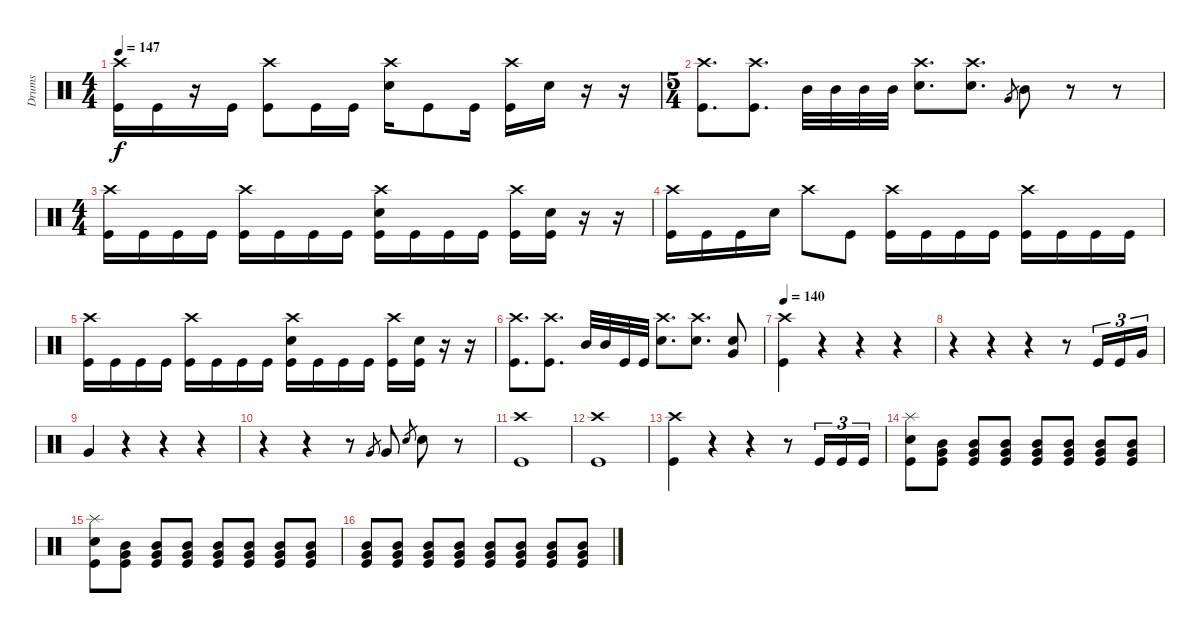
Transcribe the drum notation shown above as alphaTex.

\track ("Drums" "Drums") {instrument percussion}
\staff {score}
\articulation defaults
\ts (4 4)
\tempo 147
\clef neutral
\ks c
("Crash high (hit)" "Kick (hit)").16{dy f} "Kick (hit)".16 r.16 "Kick (hit)".16 ("Crash high (hit)" "Kick (hit)").8 "Kick (hit)".16 "Kick (hit)".16 ("Crash high (hit)" "Electric Snare (hit)").16 "Kick (hit)".8 "Kick (hit)".16 ("Crash high (hit)" "Kick (hit)").16 "Electric Snare (hit)".16 r.16 r.16 |
\ts (5 4)
("Crash high (hit)" "Kick (hit)").8{d} ("Kick (hit)" "Crash high (hit)").8{d} "Mid Tom (hit)".32 "Mid Tom (hit)".32 "Mid Tom (hit)".32 "Mid Tom (hit)".32 ("Electric Snare (hit)" "Crash high (hit)").8{d} ("Electric Snare (hit)" "Crash high (hit)").8{d} "Very Low Tom (hit)".8{gr} "Mid Tom (hit)".8 r.8 r.8 |
\ts (4 4)
("Crash high (hit)" "Kick (hit)").16 "Kick (hit)".16 "Kick (hit)".16 "Kick (hit)".16 ("Crash high (hit)" "Kick (hit)").16 "Kick (hit)".16 "Kick (hit)".16 "Kick (hit)".16 ("Crash high (hit)" "Electric Snare (hit)" "Kick (hit)").16 "Kick (hit)".16 "Kick (hit)".16 "Kick (hit)".16 ("Crash high (hit)" "Kick (hit)").16 ("Electric Snare (hit)" "Kick (hit)").16 r.16 r.16 |
("Crash high (hit)" "Kick (hit)").16 "Kick (hit)".16 "Kick (hit)".16 "Electric Snare (hit)".16 "Crash high (hit)".8 "Kick (hit)".8 ("Crash high (hit)" "Kick (hit)").16 "Kick (hit)".16 "Kick (hit)".16 "Kick (hit)".16 ("Crash high (hit)" "Kick (hit)").16 "Kick (hit)".16 "Kick (hit)".16 "Kick (hit)".16 |
("Crash high (hit)" "Kick (hit)").16 "Kick (hit)".16 "Kick (hit)".16 "Kick (hit)".16 ("Crash high (hit)" "Kick (hit)").16 "Kick (hit)".16 "Kick (hit)".16 "Kick (hit)".16 ("Crash high (hit)" "Electric Snare (hit)" "Kick (hit)").16 "Kick (hit)".16 "Kick (hit)".16 "Kick (hit)".16 ("Crash high (hit)" "Kick (hit)").16 ("Electric Snare (hit)" "Kick (hit)").16 r.16 r.16 |
("Crash high (hit)" "Kick (hit)").8{d} ("Kick (hit)" "Crash high (hit)").8{d} "Mid Tom (hit)".32 "Mid Tom (hit)".32 "Kick (hit)".32 "Kick (hit)".32 ("Electric Snare (hit)" "Crash high (hit)").8{d} ("Electric Snare (hit)" "Crash high (hit)").8{d} ("Very Low Tom (hit)" "Electric Snare (hit)").8 |
\tempo 140
("Crash high (hit)" "Kick (hit)").4 r.4 r.4 r.4 |
r.4 r.4 r.4 r.8 "Kick (hit)".16{tu (3 2)} "Kick (hit)".16{tu (3 2)} "Very Low Tom (hit)".16{tu (3 2)} |
"Very Low Tom (hit)".4 r.4 r.4 r.4 |
r.4 r.4 r.8 "Very Low Tom (hit)".8{gr} "Very Low Tom (hit)".8 "Electric Snare (hit)".8{gr} "Electric Snare (hit)".8 r.8 |
("Crash high (hit)" "Kick (hit)").1 |
("Crash high (hit)" "Kick (hit)").1 |
("Crash high (hit)" "Kick (hit)").4 r.4 r.4 r.8 "Kick (hit)".16{tu (3 2)} "Kick (hit)".16{tu (3 2)} "Kick (hit)".16{tu (3 2)} |
("Splash (hit)" "Electric Snare (hit)" "Kick (hit)").8 ("Very Low Tom (hit)" "Mid Tom (hit)" "Kick (hit)").8 ("Very Low Tom (hit)" "Mid Tom (hit)" "Kick (hit)").8 ("Very Low Tom (hit)" "Mid Tom (hit)" "Kick (hit)").8 ("Very Low Tom (hit)" "Mid Tom (hit)" "Kick (hit)").8 ("Very Low Tom (hit)" "Mid Tom (hit)" "Kick (hit)").8 ("Very Low Tom (hit)" "Mid Tom (hit)" "Kick (hit)").8 ("Very Low Tom (hit)" "Mid Tom (hit)" "Kick (hit)").8 |
("Splash (hit)" "Electric Snare (hit)" "Kick (hit)").8 ("Very Low Tom (hit)" "Mid Tom (hit)" "Kick (hit)").8 ("Very Low Tom (hit)" "Mid Tom (hit)" "Kick (hit)").8 ("Very Low Tom (hit)" "Mid Tom (hit)" "Kick (hit)").8 ("Very Low Tom (hit)" "Mid Tom (hit)" "Kick (hit)").8 ("Very Low Tom (hit)" "Mid Tom (hit)" "Kick (hit)").8 ("Very Low Tom (hit)" "Mid Tom (hit)" "Kick (hit)").8 ("Very Low Tom (hit)" "Mid Tom (hit)" "Kick (hit)").8 |
("Very Low Tom (hit)" "Mid Tom (hit)" "Kick (hit)").8 ("Very Low Tom (hit)" "Mid Tom (hit)" "Kick (hit)").8 ("Very Low Tom (hit)" "Mid Tom (hit)" "Kick (hit)").8 ("Very Low Tom (hit)" "Mid Tom (hit)" "Kick (hit)").8 ("Very Low Tom (hit)" "Mid Tom (hit)" "Kick (hit)").8 ("Very Low Tom (hit)" "Mid Tom (hit)" "Kick (hit)").8 ("Very Low Tom (hit)" "Mid Tom (hit)" "Kick (hit)").8 ("Very Low Tom (hit)" "Mid Tom (hit)" "Kick (hit)").8
